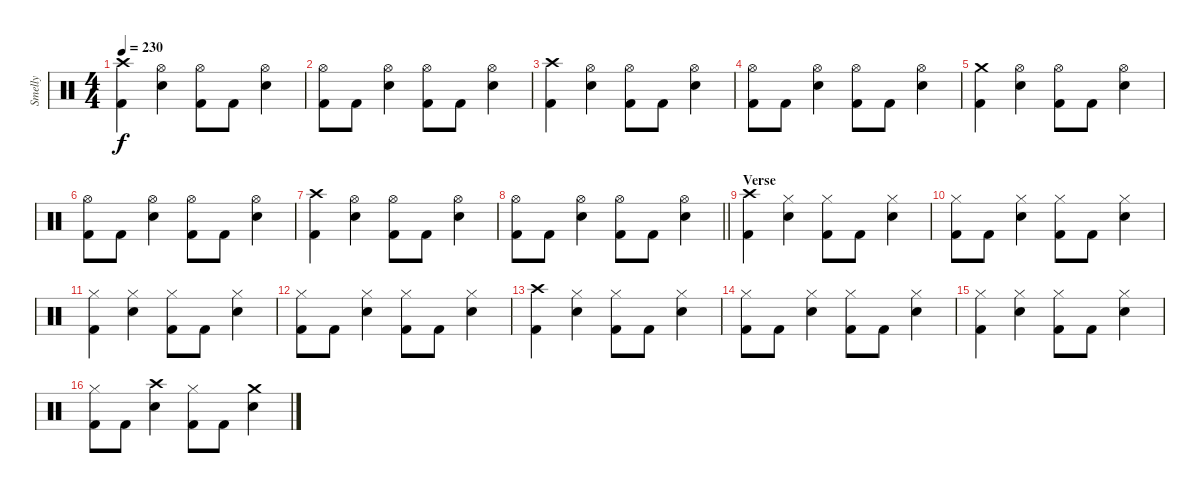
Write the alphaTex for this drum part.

\track ("Smelly" "Smelly") {instrument percussion}
\staff {score}
\articulation defaults
\ts (4 4)
\tempo 230
\clef neutral
\ks c
("Crash high (hit)" "Kick (hit) 2").4{dy f} ("Hi-Hat (open)" "Snare (hit) 2").4 ("Hi-Hat (open)" "Kick (hit) 2").8 "Kick (hit) 2".8 ("Hi-Hat (open)" "Snare (hit) 2").4 |
("Hi-Hat (open)" "Kick (hit) 2").8 "Kick (hit) 2".8 ("Hi-Hat (open)" "Snare (hit) 2").4 ("Hi-Hat (open)" "Kick (hit) 2").8 "Kick (hit) 2".8 ("Hi-Hat (open)" "Snare (hit) 2").4 |
("Crash high (hit)" "Kick (hit) 2").4 ("Hi-Hat (open)" "Snare (hit) 2").4 ("Hi-Hat (open)" "Kick (hit) 2").8 "Kick (hit) 2".8 ("Hi-Hat (open)" "Snare (hit) 2").4 |
("Hi-Hat (open)" "Kick (hit) 2").8 "Kick (hit) 2".8 ("Hi-Hat (open)" "Snare (hit) 2").4 ("Hi-Hat (open)" "Kick (hit) 2").8 "Kick (hit) 2".8 ("Hi-Hat (open)" "Snare (hit) 2").4 |
("Crash medium (hit)" "Kick (hit) 2").4 ("Hi-Hat (open)" "Snare (hit) 2").4 ("Hi-Hat (open)" "Kick (hit) 2").8 "Kick (hit) 2".8 ("Hi-Hat (open)" "Snare (hit) 2").4 |
("Hi-Hat (open)" "Kick (hit) 2").8 "Kick (hit) 2".8 ("Hi-Hat (open)" "Snare (hit) 2").4 ("Hi-Hat (open)" "Kick (hit) 2").8 "Kick (hit) 2".8 ("Hi-Hat (open)" "Snare (hit) 2").4 |
("Crash high (hit)" "Kick (hit) 2").4 ("Hi-Hat (open)" "Snare (hit) 2").4 ("Hi-Hat (open)" "Kick (hit) 2").8 "Kick (hit) 2".8 ("Hi-Hat (open)" "Snare (hit) 2").4 |
\barLineRight lightlight
("Hi-Hat (open)" "Kick (hit) 2").8 "Kick (hit) 2".8 ("Hi-Hat (open)" "Snare (hit) 2").4 ("Hi-Hat (open)" "Kick (hit) 2").8 "Kick (hit) 2".8 ("Hi-Hat (open)" "Snare (hit) 2").4 |
\section ("" "Verse")
("Crash high (hit)" "Kick (hit) 2").4 ("Hi-Hat (closed)" "Snare (hit) 2").4 ("Hi-Hat (closed)" "Kick (hit) 2").8 "Kick (hit) 2".8 ("Hi-Hat (closed)" "Snare (hit) 2").4 |
("Hi-Hat (closed)" "Kick (hit) 2").8 "Kick (hit) 2".8 ("Hi-Hat (closed)" "Snare (hit) 2").4 ("Hi-Hat (closed)" "Kick (hit) 2").8 "Kick (hit) 2".8 ("Hi-Hat (closed)" "Snare (hit) 2").4 |
("Hi-Hat (closed)" "Kick (hit) 2").4 ("Hi-Hat (closed)" "Snare (hit) 2").4 ("Hi-Hat (closed)" "Kick (hit) 2").8 "Kick (hit) 2".8 ("Hi-Hat (closed)" "Snare (hit) 2").4 |
("Hi-Hat (closed)" "Kick (hit) 2").8 "Kick (hit) 2".8 ("Hi-Hat (closed)" "Snare (hit) 2").4 ("Hi-Hat (closed)" "Kick (hit) 2").8 "Kick (hit) 2".8 ("Hi-Hat (closed)" "Snare (hit) 2").4 |
("Crash high (hit)" "Kick (hit) 2").4 ("Hi-Hat (closed)" "Snare (hit) 2").4 ("Hi-Hat (closed)" "Kick (hit) 2").8 "Kick (hit) 2".8 ("Hi-Hat (closed)" "Snare (hit) 2").4 |
("Hi-Hat (closed)" "Kick (hit) 2").8 "Kick (hit) 2".8 ("Hi-Hat (closed)" "Snare (hit) 2").4 ("Hi-Hat (closed)" "Kick (hit) 2").8 "Kick (hit) 2".8 ("Hi-Hat (closed)" "Snare (hit) 2").4 |
("Hi-Hat (closed)" "Kick (hit) 2").4 ("Hi-Hat (closed)" "Snare (hit) 2").4 ("Hi-Hat (closed)" "Kick (hit) 2").8 "Kick (hit) 2".8 ("Hi-Hat (closed)" "Snare (hit) 2").4 |
("Hi-Hat (closed)" "Kick (hit) 2").8 "Kick (hit) 2".8 ("Crash high (hit)" "Snare (hit) 2").4 ("Hi-Hat (closed)" "Kick (hit) 2").8 "Kick (hit) 2".8 ("Crash medium (hit)" "Snare (hit) 2").4
